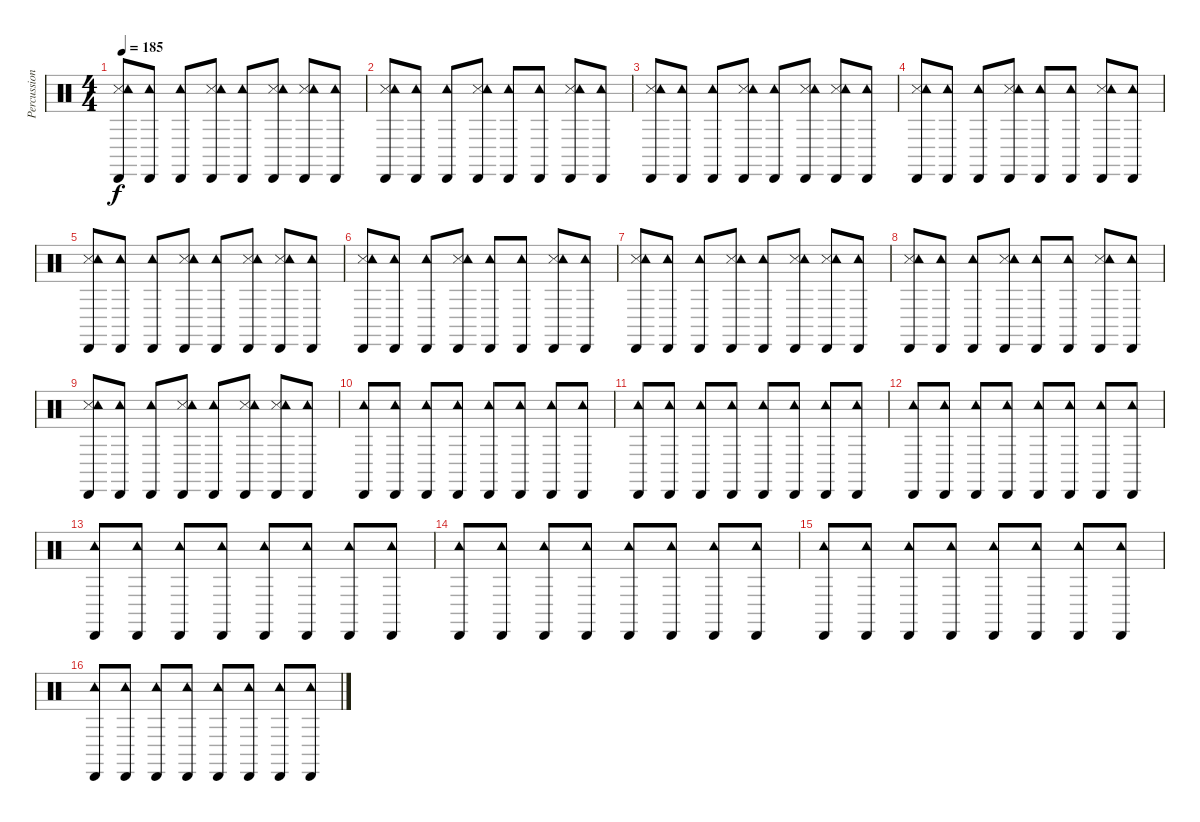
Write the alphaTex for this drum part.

\track ("Percussion" "Percussion") {instrument percussion}
\staff {score}
\articulation defaults
\ts (4 4)
\tempo 185
\clef neutral
\ks c
("Snare (side stick) 3" "Cabasa (hit)" "Tambourine (hit)").8{dy f} ("Cabasa (hit)" "Tambourine (hit)").8 ("Cabasa (hit)" "Tambourine (hit)").8 ("Snare (side stick) 3" "Cabasa (hit)" "Tambourine (hit)").8 ("Cabasa (hit)" "Tambourine (hit)").8 ("Snare (side stick) 3" "Cabasa (hit)" "Tambourine (hit)").8 ("Snare (side stick) 3" "Cabasa (hit)" "Tambourine (hit)").8 ("Cabasa (hit)" "Tambourine (hit)").8 |
("Snare (side stick) 3" "Cabasa (hit)" "Tambourine (hit)").8 ("Cabasa (hit)" "Tambourine (hit)").8 ("Cabasa (hit)" "Tambourine (hit)").8 ("Snare (side stick) 3" "Cabasa (hit)" "Tambourine (hit)").8 ("Cabasa (hit)" "Tambourine (hit)").8 ("Cabasa (hit)" "Tambourine (hit)").8 ("Snare (side stick) 3" "Cabasa (hit)" "Tambourine (hit)").8 ("Cabasa (hit)" "Tambourine (hit)").8 |
("Snare (side stick) 3" "Cabasa (hit)" "Tambourine (hit)").8 ("Cabasa (hit)" "Tambourine (hit)").8 ("Cabasa (hit)" "Tambourine (hit)").8 ("Snare (side stick) 3" "Cabasa (hit)" "Tambourine (hit)").8 ("Cabasa (hit)" "Tambourine (hit)").8 ("Snare (side stick) 3" "Cabasa (hit)" "Tambourine (hit)").8 ("Snare (side stick) 3" "Cabasa (hit)" "Tambourine (hit)").8 ("Cabasa (hit)" "Tambourine (hit)").8 |
("Snare (side stick) 3" "Cabasa (hit)" "Tambourine (hit)").8 ("Cabasa (hit)" "Tambourine (hit)").8 ("Cabasa (hit)" "Tambourine (hit)").8 ("Snare (side stick) 3" "Cabasa (hit)" "Tambourine (hit)").8 ("Cabasa (hit)" "Tambourine (hit)").8 ("Cabasa (hit)" "Tambourine (hit)").8 ("Snare (side stick) 3" "Cabasa (hit)" "Tambourine (hit)").8 ("Cabasa (hit)" "Tambourine (hit)").8 |
("Snare (side stick) 3" "Cabasa (hit)" "Tambourine (hit)").8 ("Cabasa (hit)" "Tambourine (hit)").8 ("Cabasa (hit)" "Tambourine (hit)").8 ("Snare (side stick) 3" "Cabasa (hit)" "Tambourine (hit)").8 ("Cabasa (hit)" "Tambourine (hit)").8 ("Snare (side stick) 3" "Cabasa (hit)" "Tambourine (hit)").8 ("Snare (side stick) 3" "Cabasa (hit)" "Tambourine (hit)").8 ("Cabasa (hit)" "Tambourine (hit)").8 |
("Snare (side stick) 3" "Cabasa (hit)" "Tambourine (hit)").8 ("Cabasa (hit)" "Tambourine (hit)").8 ("Cabasa (hit)" "Tambourine (hit)").8 ("Snare (side stick) 3" "Cabasa (hit)" "Tambourine (hit)").8 ("Cabasa (hit)" "Tambourine (hit)").8 ("Cabasa (hit)" "Tambourine (hit)").8 ("Snare (side stick) 3" "Cabasa (hit)" "Tambourine (hit)").8 ("Cabasa (hit)" "Tambourine (hit)").8 |
("Snare (side stick) 3" "Cabasa (hit)" "Tambourine (hit)").8 ("Cabasa (hit)" "Tambourine (hit)").8 ("Cabasa (hit)" "Tambourine (hit)").8 ("Snare (side stick) 3" "Cabasa (hit)" "Tambourine (hit)").8 ("Cabasa (hit)" "Tambourine (hit)").8 ("Snare (side stick) 3" "Cabasa (hit)" "Tambourine (hit)").8 ("Snare (side stick) 3" "Cabasa (hit)" "Tambourine (hit)").8 ("Cabasa (hit)" "Tambourine (hit)").8 |
("Snare (side stick) 3" "Cabasa (hit)" "Tambourine (hit)").8 ("Cabasa (hit)" "Tambourine (hit)").8 ("Cabasa (hit)" "Tambourine (hit)").8 ("Snare (side stick) 3" "Cabasa (hit)" "Tambourine (hit)").8 ("Cabasa (hit)" "Tambourine (hit)").8 ("Cabasa (hit)" "Tambourine (hit)").8 ("Snare (side stick) 3" "Cabasa (hit)" "Tambourine (hit)").8 ("Cabasa (hit)" "Tambourine (hit)").8 |
("Snare (side stick) 3" "Cabasa (hit)" "Tambourine (hit)").8 ("Cabasa (hit)" "Tambourine (hit)").8 ("Cabasa (hit)" "Tambourine (hit)").8 ("Snare (side stick) 3" "Cabasa (hit)" "Tambourine (hit)").8 ("Cabasa (hit)" "Tambourine (hit)").8 ("Snare (side stick) 3" "Cabasa (hit)" "Tambourine (hit)").8 ("Snare (side stick) 3" "Cabasa (hit)" "Tambourine (hit)").8 ("Cabasa (hit)" "Tambourine (hit)").8 |
("Cabasa (hit)" "Tambourine (hit)").8 ("Cabasa (hit)" "Tambourine (hit)").8 ("Cabasa (hit)" "Tambourine (hit)").8 ("Cabasa (hit)" "Tambourine (hit)").8 ("Cabasa (hit)" "Tambourine (hit)").8 ("Cabasa (hit)" "Tambourine (hit)").8 ("Cabasa (hit)" "Tambourine (hit)").8 ("Cabasa (hit)" "Tambourine (hit)").8 |
("Cabasa (hit)" "Tambourine (hit)").8 ("Cabasa (hit)" "Tambourine (hit)").8 ("Cabasa (hit)" "Tambourine (hit)").8 ("Cabasa (hit)" "Tambourine (hit)").8 ("Cabasa (hit)" "Tambourine (hit)").8 ("Cabasa (hit)" "Tambourine (hit)").8 ("Cabasa (hit)" "Tambourine (hit)").8 ("Cabasa (hit)" "Tambourine (hit)").8 |
("Cabasa (hit)" "Tambourine (hit)").8 ("Cabasa (hit)" "Tambourine (hit)").8 ("Cabasa (hit)" "Tambourine (hit)").8 ("Cabasa (hit)" "Tambourine (hit)").8 ("Cabasa (hit)" "Tambourine (hit)").8 ("Cabasa (hit)" "Tambourine (hit)").8 ("Cabasa (hit)" "Tambourine (hit)").8 ("Cabasa (hit)" "Tambourine (hit)").8 |
("Cabasa (hit)" "Tambourine (hit)").8 ("Cabasa (hit)" "Tambourine (hit)").8 ("Cabasa (hit)" "Tambourine (hit)").8 ("Cabasa (hit)" "Tambourine (hit)").8 ("Cabasa (hit)" "Tambourine (hit)").8 ("Cabasa (hit)" "Tambourine (hit)").8 ("Cabasa (hit)" "Tambourine (hit)").8 ("Cabasa (hit)" "Tambourine (hit)").8 |
("Cabasa (hit)" "Tambourine (hit)").8 ("Cabasa (hit)" "Tambourine (hit)").8 ("Cabasa (hit)" "Tambourine (hit)").8 ("Cabasa (hit)" "Tambourine (hit)").8 ("Cabasa (hit)" "Tambourine (hit)").8 ("Cabasa (hit)" "Tambourine (hit)").8 ("Cabasa (hit)" "Tambourine (hit)").8 ("Cabasa (hit)" "Tambourine (hit)").8 |
("Cabasa (hit)" "Tambourine (hit)").8 ("Cabasa (hit)" "Tambourine (hit)").8 ("Cabasa (hit)" "Tambourine (hit)").8 ("Cabasa (hit)" "Tambourine (hit)").8 ("Cabasa (hit)" "Tambourine (hit)").8 ("Cabasa (hit)" "Tambourine (hit)").8 ("Cabasa (hit)" "Tambourine (hit)").8 ("Cabasa (hit)" "Tambourine (hit)").8 |
("Cabasa (hit)" "Tambourine (hit)").8 ("Cabasa (hit)" "Tambourine (hit)").8 ("Cabasa (hit)" "Tambourine (hit)").8 ("Cabasa (hit)" "Tambourine (hit)").8 ("Cabasa (hit)" "Tambourine (hit)").8 ("Cabasa (hit)" "Tambourine (hit)").8 ("Cabasa (hit)" "Tambourine (hit)").8 ("Cabasa (hit)" "Tambourine (hit)").8
